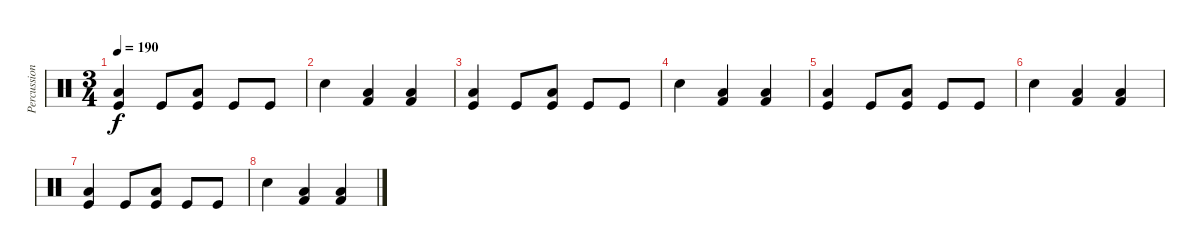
\track ("Percussion" "Percussion") {instrument percussion}
\staff {score}
\articulation defaults
\ts (3 4)
\tempo 190
\clef neutral
\ks c
("Kick (hit)" "Low Floor Tom (hit)").4{dy f} "Kick (hit)".8 ("Kick (hit)" "Low Tom (hit)").8 "Kick (hit)".8 "Kick (hit)".8 |
"Snare (hit) 2".4 ("Kick (hit) 2" "Low Floor Tom (hit)").4 ("Kick (hit) 2" "Low Floor Tom (hit)").4 |
("Kick (hit)" "Low Floor Tom (hit)").4 "Kick (hit)".8 ("Kick (hit)" "Low Tom (hit)").8 "Kick (hit)".8 "Kick (hit)".8 |
"Snare (hit) 2".4 ("Kick (hit) 2" "Low Floor Tom (hit)").4 ("Kick (hit) 2" "Low Floor Tom (hit)").4 |
("Kick (hit)" "Low Floor Tom (hit)").4 "Kick (hit)".8 ("Kick (hit)" "Low Tom (hit)").8 "Kick (hit)".8 "Kick (hit)".8 |
"Snare (hit) 2".4 ("Kick (hit) 2" "Low Floor Tom (hit)").4 ("Kick (hit) 2" "Low Floor Tom (hit)").4 |
("Kick (hit)" "Low Floor Tom (hit)").4 "Kick (hit)".8 ("Kick (hit)" "Low Tom (hit)").8 "Kick (hit)".8 "Kick (hit)".8 |
"Snare (hit) 2".4 ("Kick (hit) 2" "Low Floor Tom (hit)").4 ("Kick (hit) 2" "Low Floor Tom (hit)").4
